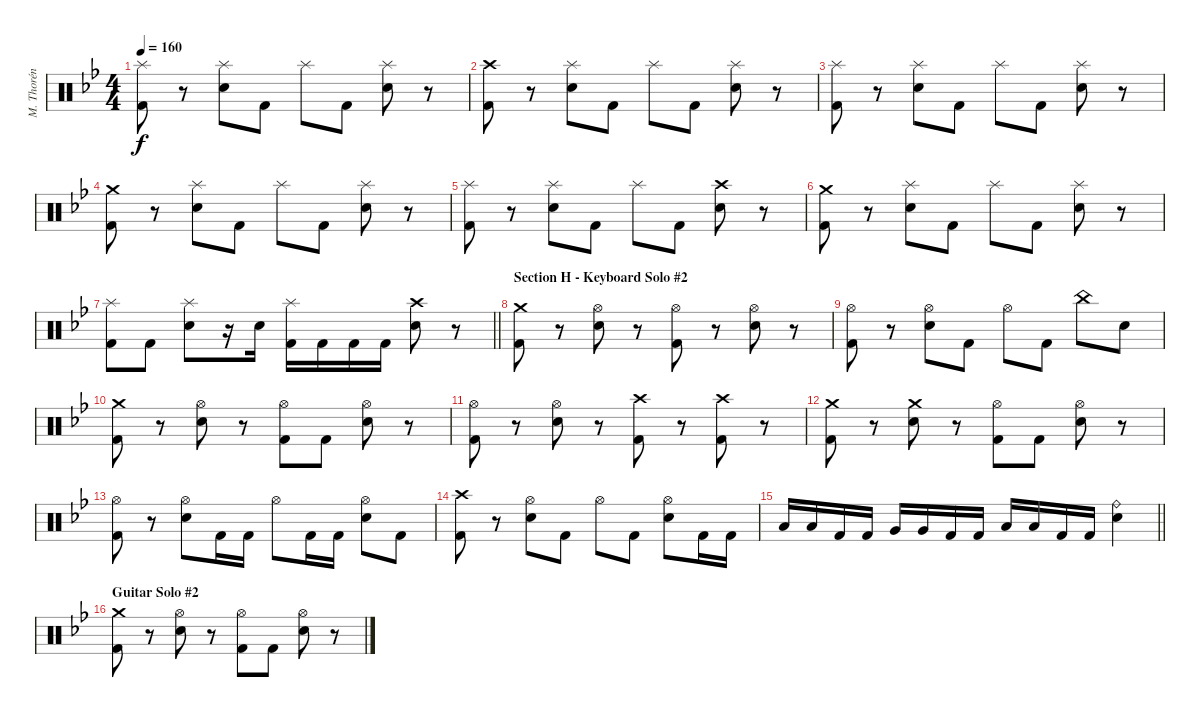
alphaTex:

\track ("M. Thorén (Drums)" "M. Thorén ") {instrument percussion}
\staff {score}
\articulation defaults
\ts (4 4)
\tempo 160
\clef neutral
\ks gminor
("Splash (hit)" "Kick (hit) 2").8{dy f} r.8 ("Splash (hit)" "Electric Snare (hit)").8 "Kick (hit) 2".8 "Splash (hit)".8 "Kick (hit) 2".8 ("Splash (hit)" "Electric Snare (hit)").8 r.8 |
("Crash high (hit)" "Kick (hit) 2").8 r.8 ("Splash (hit)" "Electric Snare (hit)").8 "Kick (hit) 2".8 "Splash (hit)".8 "Kick (hit) 2".8 ("Splash (hit)" "Electric Snare (hit)").8 r.8 |
("Splash (hit)" "Kick (hit) 2").8 r.8 ("Splash (hit)" "Electric Snare (hit)").8 "Kick (hit) 2".8 "Splash (hit)".8 "Kick (hit) 2".8 ("Splash (hit)" "Electric Snare (hit)").8 r.8 |
("Crash medium (hit)" "Kick (hit) 2").8 r.8 ("Splash (hit)" "Electric Snare (hit)").8 "Kick (hit) 2".8 "Splash (hit)".8 "Kick (hit) 2".8 ("Splash (hit)" "Electric Snare (hit)").8 r.8 |
("Splash (hit)" "Kick (hit) 2").8 r.8 ("Splash (hit)" "Electric Snare (hit)").8 "Kick (hit) 2".8 "Splash (hit)".8 "Kick (hit) 2".8 ("Crash high (hit)" "Electric Snare (hit)").8 r.8 |
("Crash medium (hit)" "Kick (hit) 2").8 r.8 ("Splash (hit)" "Electric Snare (hit)").8 "Kick (hit) 2".8 "Splash (hit)".8 "Kick (hit) 2".8 ("Splash (hit)" "Electric Snare (hit)").8 r.8 |
\barLineRight lightlight
("Splash (hit)" "Kick (hit) 2").8 "Kick (hit) 2".8 ("Splash (hit)" "Electric Snare (hit)").8 r.16 "Electric Snare (hit)".16 ("Splash (hit)" "Kick (hit) 2").16 "Kick (hit) 2".16 "Kick (hit) 2".16 "Kick (hit) 2".16 ("Crash high (hit)" "Electric Snare (hit)").8 r.8 |
\section ("" "Section H - Keyboard Solo #2")
("Crash medium (hit)" "Kick (hit) 2").8 r.8 ("Hi-Hat (open)" "Electric Snare (hit)").8 r.8 ("Hi-Hat (open)" "Kick (hit) 2").8 r.8 ("Hi-Hat (open)" "Electric Snare (hit)").8 r.8 |
("Hi-Hat (open)" "Kick (hit) 2").8 r.8 ("Hi-Hat (open)" "Electric Snare (hit)").8 "Kick (hit) 2".8 "Hi-Hat (open)".8 "Kick (hit) 2".8 "China (hit)".8 "Electric Snare (hit)".8 |
("Crash medium (hit)" "Kick (hit) 2").8 r.8 ("Hi-Hat (open)" "Electric Snare (hit)").8 r.8 ("Hi-Hat (open)" "Kick (hit) 2").8 "Kick (hit) 2".8 ("Hi-Hat (open)" "Electric Snare (hit)").8 r.8 |
("Hi-Hat (open)" "Kick (hit) 2").8 r.8 ("Hi-Hat (open)" "Electric Snare (hit)").8 r.8 ("Crash high (hit)" "Kick (hit) 2").8 r.8{volume 0} ("Crash high (hit)" "Kick (hit) 2").8{volume 12} r.8{volume 0} |
("Crash medium (hit)" "Kick (hit) 2").8{volume 12} r.8 ("Crash medium (hit)" "Electric Snare (hit)").8 r.8 ("Hi-Hat (open)" "Kick (hit) 2").8 "Kick (hit) 2".8 ("Hi-Hat (open)" "Electric Snare (hit)").8 r.8 |
("Hi-Hat (open)" "Kick (hit) 2").8 r.8 ("Hi-Hat (open)" "Electric Snare (hit)").8 "Kick (hit) 2".16 "Kick (hit) 2".16 "Hi-Hat (open)".8 "Kick (hit) 2".16 "Kick (hit) 2".16 ("Hi-Hat (open)" "Electric Snare (hit)").8 "Kick (hit) 2".8 |
("Crash high (hit)" "Kick (hit) 2").8 r.8 ("Hi-Hat (open)" "Electric Snare (hit)").8 "Kick (hit) 2".8 "Hi-Hat (open)".8 "Kick (hit) 2".8 ("Hi-Hat (open)" "Electric Snare (hit)").8 "Kick (hit) 2".16 "Kick (hit) 2".16 |
\barLineRight lightlight "Low Tom (hit)".16 "Low Tom (hit)".16 "Kick (hit) 2".16 "Kick (hit) 2".16 "Very Low Tom (hit)".16 "Very Low Tom (hit)".16 "Kick (hit) 2".16 "Kick (hit) 2".16 "Low Floor Tom (hit)".16 "Low Floor Tom (hit)".16 "Kick (hit) 2".16 "Kick (hit) 2".16
("Ride (bell)" "Electric Snare (hit)").4 |
\section ("" "Guitar Solo #2")
("Crash medium (hit)" "Kick (hit) 2").8 r.8 ("Hi-Hat (open)" "Electric Snare (hit)").8 r.8 ("Hi-Hat (open)" "Kick (hit) 2").8 "Kick (hit) 2".8 ("Hi-Hat (open)" "Electric Snare (hit)").8 r.8
